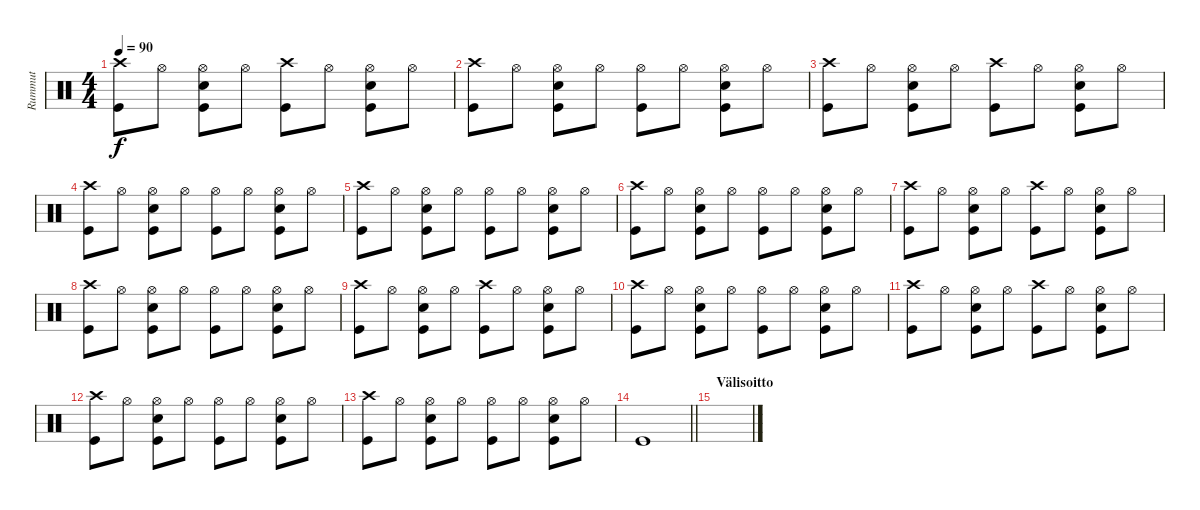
\track ("Rummut" "Rummut") {instrument percussion}
\staff {score}
\articulation defaults
\ts (4 4)
\tempo 90
\clef neutral
\ks c
("Crash high (hit)" "Kick (hit)").8{dy f} "Hi-Hat (open)".8 ("Hi-Hat (open)" "Electric Snare (hit)" "Kick (hit)").8 "Hi-Hat (open)".8 ("Crash high (hit)" "Kick (hit)").8 "Hi-Hat (open)".8 ("Hi-Hat (open)" "Electric Snare (hit)" "Kick (hit)").8 "Hi-Hat (open)".8 |
("Crash high (hit)" "Kick (hit)").8 "Hi-Hat (open)".8 ("Hi-Hat (open)" "Electric Snare (hit)" "Kick (hit)").8 "Hi-Hat (open)".8 ("Hi-Hat (open)" "Kick (hit)").8 "Hi-Hat (open)".8 ("Hi-Hat (open)" "Electric Snare (hit)" "Kick (hit)").8 "Hi-Hat (open)".8 |
("Crash high (hit)" "Kick (hit)").8 "Hi-Hat (open)".8 ("Hi-Hat (open)" "Electric Snare (hit)" "Kick (hit)").8 "Hi-Hat (open)".8 ("Crash high (hit)" "Kick (hit)").8 "Hi-Hat (open)".8 ("Hi-Hat (open)" "Electric Snare (hit)" "Kick (hit)").8 "Hi-Hat (open)".8 |
("Crash high (hit)" "Kick (hit)").8 "Hi-Hat (open)".8 ("Hi-Hat (open)" "Electric Snare (hit)" "Kick (hit)").8 "Hi-Hat (open)".8 ("Hi-Hat (open)" "Kick (hit)").8 "Hi-Hat (open)".8 ("Hi-Hat (open)" "Electric Snare (hit)" "Kick (hit)").8 "Hi-Hat (open)".8 |
("Crash high (hit)" "Kick (hit)").8 "Hi-Hat (open)".8 ("Hi-Hat (open)" "Electric Snare (hit)" "Kick (hit)").8 "Hi-Hat (open)".8 ("Hi-Hat (open)" "Kick (hit)").8 "Hi-Hat (open)".8 ("Hi-Hat (open)" "Electric Snare (hit)" "Kick (hit)").8 "Hi-Hat (open)".8 |
("Crash high (hit)" "Kick (hit)").8 "Hi-Hat (open)".8 ("Hi-Hat (open)" "Electric Snare (hit)" "Kick (hit)").8 "Hi-Hat (open)".8 ("Hi-Hat (open)" "Kick (hit)").8 "Hi-Hat (open)".8 ("Hi-Hat (open)" "Electric Snare (hit)" "Kick (hit)").8 "Hi-Hat (open)".8 |
("Crash high (hit)" "Kick (hit)").8 "Hi-Hat (open)".8 ("Hi-Hat (open)" "Electric Snare (hit)" "Kick (hit)").8 "Hi-Hat (open)".8 ("Crash high (hit)" "Kick (hit)").8 "Hi-Hat (open)".8 ("Hi-Hat (open)" "Electric Snare (hit)" "Kick (hit)").8 "Hi-Hat (open)".8 |
("Crash high (hit)" "Kick (hit)").8 "Hi-Hat (open)".8 ("Hi-Hat (open)" "Electric Snare (hit)" "Kick (hit)").8 "Hi-Hat (open)".8 ("Hi-Hat (open)" "Kick (hit)").8 "Hi-Hat (open)".8 ("Hi-Hat (open)" "Electric Snare (hit)" "Kick (hit)").8 "Hi-Hat (open)".8 |
("Crash high (hit)" "Kick (hit)").8 "Hi-Hat (open)".8 ("Hi-Hat (open)" "Electric Snare (hit)" "Kick (hit)").8 "Hi-Hat (open)".8 ("Crash high (hit)" "Kick (hit)").8 "Hi-Hat (open)".8 ("Hi-Hat (open)" "Electric Snare (hit)" "Kick (hit)").8 "Hi-Hat (open)".8 |
("Crash high (hit)" "Kick (hit)").8 "Hi-Hat (open)".8 ("Hi-Hat (open)" "Electric Snare (hit)" "Kick (hit)").8 "Hi-Hat (open)".8 ("Hi-Hat (open)" "Kick (hit)").8 "Hi-Hat (open)".8 ("Hi-Hat (open)" "Electric Snare (hit)" "Kick (hit)").8 "Hi-Hat (open)".8 |
("Crash high (hit)" "Kick (hit)").8 "Hi-Hat (open)".8 ("Hi-Hat (open)" "Electric Snare (hit)" "Kick (hit)").8 "Hi-Hat (open)".8 ("Crash high (hit)" "Kick (hit)").8 "Hi-Hat (open)".8 ("Hi-Hat (open)" "Electric Snare (hit)" "Kick (hit)").8 "Hi-Hat (open)".8 |
("Crash high (hit)" "Kick (hit)").8 "Hi-Hat (open)".8 ("Hi-Hat (open)" "Electric Snare (hit)" "Kick (hit)").8 "Hi-Hat (open)".8 ("Hi-Hat (open)" "Kick (hit)").8 "Hi-Hat (open)".8 ("Hi-Hat (open)" "Electric Snare (hit)" "Kick (hit)").8 "Hi-Hat (open)".8 |
("Crash high (hit)" "Kick (hit)").8 "Hi-Hat (open)".8 ("Hi-Hat (open)" "Electric Snare (hit)" "Kick (hit)").8 "Hi-Hat (open)".8 ("Hi-Hat (open)" "Kick (hit)").8 "Hi-Hat (open)".8 ("Hi-Hat (open)" "Electric Snare (hit)" "Kick (hit)").8 "Hi-Hat (open)".8 |
\barLineRight lightlight "Kick (hit)".1
|
\section ("" "Välisoitto")
